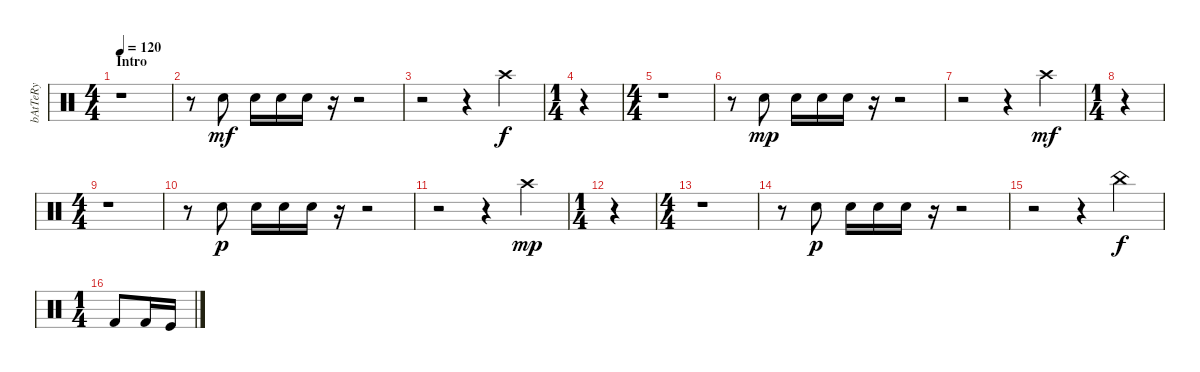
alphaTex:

\track ("bAtTeRy" "bAtTeRy") {instrument percussion}
\staff {score}
\articulation defaults
\ts (4 4)
\section ("" "Intro")
\tempo 120
\clef neutral
\ks c
r.1{dy mf} |
r.8 "Electric Snare (hit)".8 "Electric Snare (hit)".16 "Electric Snare (hit)".16 "Electric Snare (hit)".16 r.16 r.2 |
r.2 r.4 "Crash high (hit)".4{dy f} |
\ts (1 4)
r.4 |
\ts (4 4)
r.1 |
r.8 "Electric Snare (hit)".8{dy mp} "Electric Snare (hit)".16 "Electric Snare (hit)".16 "Electric Snare (hit)".16 r.16 r.2 |
r.2 r.4 "Crash high (hit)".4{dy mf} |
\ts (1 4)
r.4 |
\ts (4 4)
r.1 |
r.8 "Electric Snare (hit)".8{dy p} "Electric Snare (hit)".16 "Electric Snare (hit)".16 "Electric Snare (hit)".16 r.16 r.2 |
r.2 r.4 "Crash high (hit)".4{dy mp} |
\ts (1 4)
r.4 |
\ts (4 4)
r.1 |
r.8 "Electric Snare (hit)".8{dy p} "Electric Snare (hit)".16 "Electric Snare (hit)".16 "Electric Snare (hit)".16 r.16 r.2 |
r.2 r.4 "China (hit)".4{dy f} |
\ts (1 4)
"Kick (hit) 2".8 "Kick (hit) 2".16 "Kick (hit)".16
